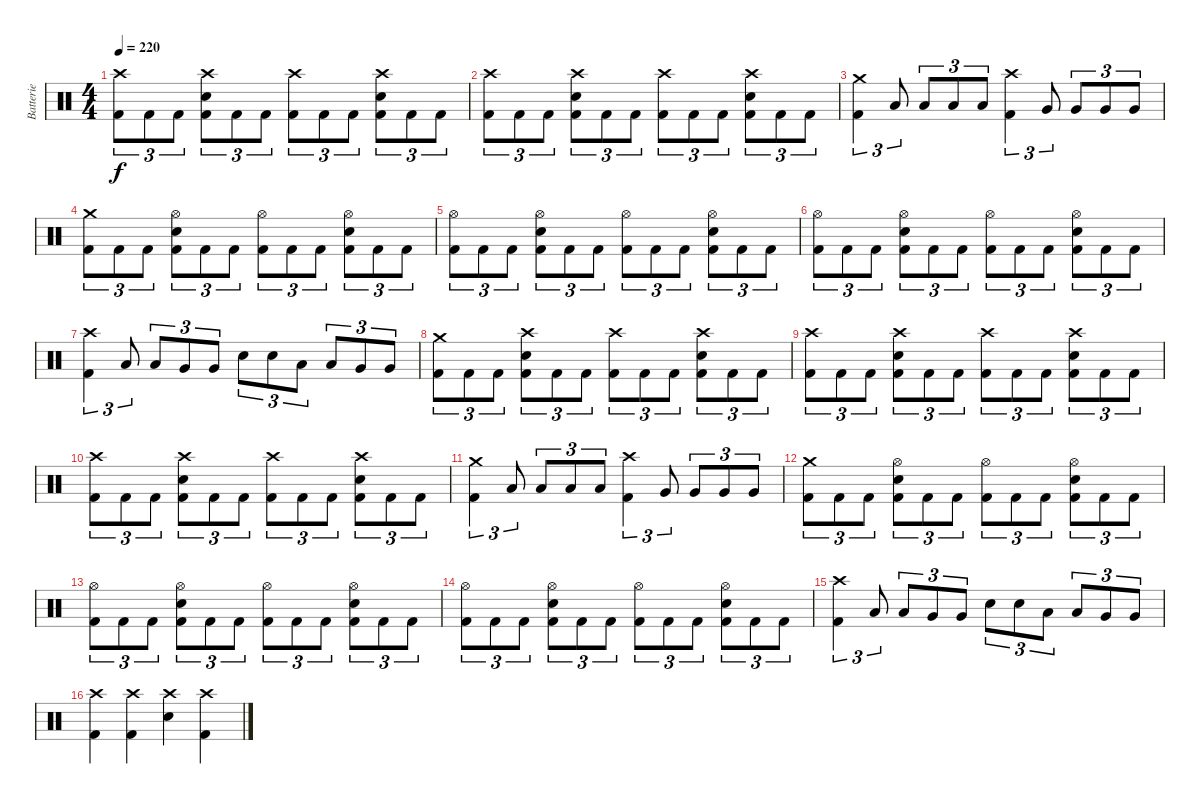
\track ("Batterie" "Batterie") {instrument percussion}
\staff {score}
\articulation defaults
\ts (4 4)
\tempo 220
\clef neutral
\ks c
("Crash high (hit)" "Kick (hit) 2").8{tu (3 2) dy f} "Kick (hit) 2".8{tu (3 2)} "Kick (hit) 2".8{tu (3 2)} ("Crash high (hit)" "Electric Snare (hit)" "Kick (hit) 2").8{tu (3 2)} "Kick (hit) 2".8{tu (3 2)} "Kick (hit) 2".8{tu (3 2)} ("Crash high (hit)" "Kick (hit) 2").8{tu (3 2)} "Kick (hit) 2".8{tu (3 2)} "Kick (hit) 2".8{tu (3 2)} ("Crash high (hit)" "Electric Snare (hit)" "Kick (hit) 2").8{tu (3 2)} "Kick (hit) 2".8{tu (3 2)} "Kick (hit) 2".8{tu (3 2)} |
("Crash high (hit)" "Kick (hit) 2").8{tu (3 2)} "Kick (hit) 2".8{tu (3 2)} "Kick (hit) 2".8{tu (3 2)} ("Crash high (hit)" "Electric Snare (hit)" "Kick (hit) 2").8{tu (3 2)} "Kick (hit) 2".8{tu (3 2)} "Kick (hit) 2".8{tu (3 2)} ("Crash high (hit)" "Kick (hit) 2").8{tu (3 2)} "Kick (hit) 2".8{tu (3 2)} "Kick (hit) 2".8{tu (3 2)} ("Crash high (hit)" "Electric Snare (hit)" "Kick (hit) 2").8{tu (3 2)} "Kick (hit) 2".8{tu (3 2)} "Kick (hit) 2".8{tu (3 2)} |
("Crash medium (hit)" "Kick (hit) 2").4{tu (3 2)} "Low Tom (hit)".8{tu (3 2)} "Low Tom (hit)".8{tu (3 2)} "Low Tom (hit)".8{tu (3 2)} "Low Tom (hit)".8{tu (3 2)} ("Crash high (hit)" "Kick (hit) 2").4{tu (3 2)} "Very Low Tom (hit)".8{tu (3 2)} "Very Low Tom (hit)".8{tu (3 2)} "Very Low Tom (hit)".8{tu (3 2)} "Very Low Tom (hit)".8{tu (3 2)} |
("Crash medium (hit)" "Kick (hit) 2").8{tu (3 2)} "Kick (hit) 2".8{tu (3 2)} "Kick (hit) 2".8{tu (3 2)} ("Hi-Hat (open)" "Electric Snare (hit)" "Kick (hit) 2").8{tu (3 2)} "Kick (hit) 2".8{tu (3 2)} "Kick (hit) 2".8{tu (3 2)} ("Hi-Hat (open)" "Kick (hit) 2").8{tu (3 2)} "Kick (hit) 2".8{tu (3 2)} "Kick (hit) 2".8{tu (3 2)} ("Hi-Hat (open)" "Electric Snare (hit)" "Kick (hit) 2").8{tu (3 2)} "Kick (hit) 2".8{tu (3 2)} "Kick (hit) 2".8{tu (3 2)} |
("Hi-Hat (open)" "Kick (hit) 2").8{tu (3 2)} "Kick (hit) 2".8{tu (3 2)} "Kick (hit) 2".8{tu (3 2)} ("Hi-Hat (open)" "Electric Snare (hit)" "Kick (hit) 2").8{tu (3 2)} "Kick (hit) 2".8{tu (3 2)} "Kick (hit) 2".8{tu (3 2)} ("Hi-Hat (open)" "Kick (hit) 2").8{tu (3 2)} "Kick (hit) 2".8{tu (3 2)} "Kick (hit) 2".8{tu (3 2)} ("Hi-Hat (open)" "Electric Snare (hit)" "Kick (hit) 2").8{tu (3 2)} "Kick (hit) 2".8{tu (3 2)} "Kick (hit) 2".8{tu (3 2)} |
("Hi-Hat (open)" "Kick (hit) 2").8{tu (3 2)} "Kick (hit) 2".8{tu (3 2)} "Kick (hit) 2".8{tu (3 2)} ("Hi-Hat (open)" "Electric Snare (hit)" "Kick (hit) 2").8{tu (3 2)} "Kick (hit) 2".8{tu (3 2)} "Kick (hit) 2".8{tu (3 2)} ("Hi-Hat (open)" "Kick (hit) 2").8{tu (3 2)} "Kick (hit) 2".8{tu (3 2)} "Kick (hit) 2".8{tu (3 2)} ("Hi-Hat (open)" "Electric Snare (hit)" "Kick (hit) 2").8{tu (3 2)} "Kick (hit) 2".8{tu (3 2)} "Kick (hit) 2".8{tu (3 2)} |
("Crash high (hit)" "Kick (hit) 2").4{tu (3 2)} "Low Tom (hit)".8{tu (3 2)} "Low Tom (hit)".8{tu (3 2)} "Very Low Tom (hit)".8{tu (3 2)} "Very Low Tom (hit)".8{tu (3 2)} "Electric Snare (hit)".8{tu (3 2)} "Electric Snare (hit)".8{tu (3 2)} "Low Tom (hit)".8{tu (3 2)} "Low Tom (hit)".8{tu (3 2)} "Very Low Tom (hit)".8{tu (3 2)} "Very Low Tom (hit)".8{tu (3 2)} |
("Crash medium (hit)" "Kick (hit) 2").8{tu (3 2)} "Kick (hit) 2".8{tu (3 2)} "Kick (hit) 2".8{tu (3 2)} ("Crash high (hit)" "Electric Snare (hit)" "Kick (hit) 2").8{tu (3 2)} "Kick (hit) 2".8{tu (3 2)} "Kick (hit) 2".8{tu (3 2)} ("Crash high (hit)" "Kick (hit) 2").8{tu (3 2)} "Kick (hit) 2".8{tu (3 2)} "Kick (hit) 2".8{tu (3 2)} ("Crash high (hit)" "Electric Snare (hit)" "Kick (hit) 2").8{tu (3 2)} "Kick (hit) 2".8{tu (3 2)} "Kick (hit) 2".8{tu (3 2)} |
("Crash high (hit)" "Kick (hit) 2").8{tu (3 2)} "Kick (hit) 2".8{tu (3 2)} "Kick (hit) 2".8{tu (3 2)} ("Crash high (hit)" "Electric Snare (hit)" "Kick (hit) 2").8{tu (3 2)} "Kick (hit) 2".8{tu (3 2)} "Kick (hit) 2".8{tu (3 2)} ("Crash high (hit)" "Kick (hit) 2").8{tu (3 2)} "Kick (hit) 2".8{tu (3 2)} "Kick (hit) 2".8{tu (3 2)} ("Crash high (hit)" "Electric Snare (hit)" "Kick (hit) 2").8{tu (3 2)} "Kick (hit) 2".8{tu (3 2)} "Kick (hit) 2".8{tu (3 2)} |
("Crash high (hit)" "Kick (hit) 2").8{tu (3 2)} "Kick (hit) 2".8{tu (3 2)} "Kick (hit) 2".8{tu (3 2)} ("Crash high (hit)" "Electric Snare (hit)" "Kick (hit) 2").8{tu (3 2)} "Kick (hit) 2".8{tu (3 2)} "Kick (hit) 2".8{tu (3 2)} ("Crash high (hit)" "Kick (hit) 2").8{tu (3 2)} "Kick (hit) 2".8{tu (3 2)} "Kick (hit) 2".8{tu (3 2)} ("Crash high (hit)" "Electric Snare (hit)" "Kick (hit) 2").8{tu (3 2)} "Kick (hit) 2".8{tu (3 2)} "Kick (hit) 2".8{tu (3 2)} |
("Crash medium (hit)" "Kick (hit) 2").4{tu (3 2)} "Low Tom (hit)".8{tu (3 2)} "Low Tom (hit)".8{tu (3 2)} "Low Tom (hit)".8{tu (3 2)} "Low Tom (hit)".8{tu (3 2)} ("Crash high (hit)" "Kick (hit) 2").4{tu (3 2)} "Very Low Tom (hit)".8{tu (3 2)} "Very Low Tom (hit)".8{tu (3 2)} "Very Low Tom (hit)".8{tu (3 2)} "Very Low Tom (hit)".8{tu (3 2)} |
("Crash medium (hit)" "Kick (hit) 2").8{tu (3 2)} "Kick (hit) 2".8{tu (3 2)} "Kick (hit) 2".8{tu (3 2)} ("Hi-Hat (open)" "Electric Snare (hit)" "Kick (hit) 2").8{tu (3 2)} "Kick (hit) 2".8{tu (3 2)} "Kick (hit) 2".8{tu (3 2)} ("Hi-Hat (open)" "Kick (hit) 2").8{tu (3 2)} "Kick (hit) 2".8{tu (3 2)} "Kick (hit) 2".8{tu (3 2)} ("Hi-Hat (open)" "Electric Snare (hit)" "Kick (hit) 2").8{tu (3 2)} "Kick (hit) 2".8{tu (3 2)} "Kick (hit) 2".8{tu (3 2)} |
("Hi-Hat (open)" "Kick (hit) 2").8{tu (3 2)} "Kick (hit) 2".8{tu (3 2)} "Kick (hit) 2".8{tu (3 2)} ("Hi-Hat (open)" "Electric Snare (hit)" "Kick (hit) 2").8{tu (3 2)} "Kick (hit) 2".8{tu (3 2)} "Kick (hit) 2".8{tu (3 2)} ("Hi-Hat (open)" "Kick (hit) 2").8{tu (3 2)} "Kick (hit) 2".8{tu (3 2)} "Kick (hit) 2".8{tu (3 2)} ("Hi-Hat (open)" "Electric Snare (hit)" "Kick (hit) 2").8{tu (3 2)} "Kick (hit) 2".8{tu (3 2)} "Kick (hit) 2".8{tu (3 2)} |
("Hi-Hat (open)" "Kick (hit) 2").8{tu (3 2)} "Kick (hit) 2".8{tu (3 2)} "Kick (hit) 2".8{tu (3 2)} ("Hi-Hat (open)" "Electric Snare (hit)" "Kick (hit) 2").8{tu (3 2)} "Kick (hit) 2".8{tu (3 2)} "Kick (hit) 2".8{tu (3 2)} ("Hi-Hat (open)" "Kick (hit) 2").8{tu (3 2)} "Kick (hit) 2".8{tu (3 2)} "Kick (hit) 2".8{tu (3 2)} ("Hi-Hat (open)" "Electric Snare (hit)" "Kick (hit) 2").8{tu (3 2)} "Kick (hit) 2".8{tu (3 2)} "Kick (hit) 2".8{tu (3 2)} |
("Crash high (hit)" "Kick (hit) 2").4{tu (3 2)} "Low Tom (hit)".8{tu (3 2)} "Low Tom (hit)".8{tu (3 2)} "Very Low Tom (hit)".8{tu (3 2)} "Very Low Tom (hit)".8{tu (3 2)} "Electric Snare (hit)".8{tu (3 2)} "Electric Snare (hit)".8{tu (3 2)} "Low Tom (hit)".8{tu (3 2)} "Low Tom (hit)".8{tu (3 2)} "Very Low Tom (hit)".8{tu (3 2)} "Very Low Tom (hit)".8{tu (3 2)} |
("Crash high (hit)" "Kick (hit) 2").4 ("Crash high (hit)" "Kick (hit) 2").4 ("Crash high (hit)" "Electric Snare (hit)").4 ("Crash high (hit)" "Kick (hit) 2").4
